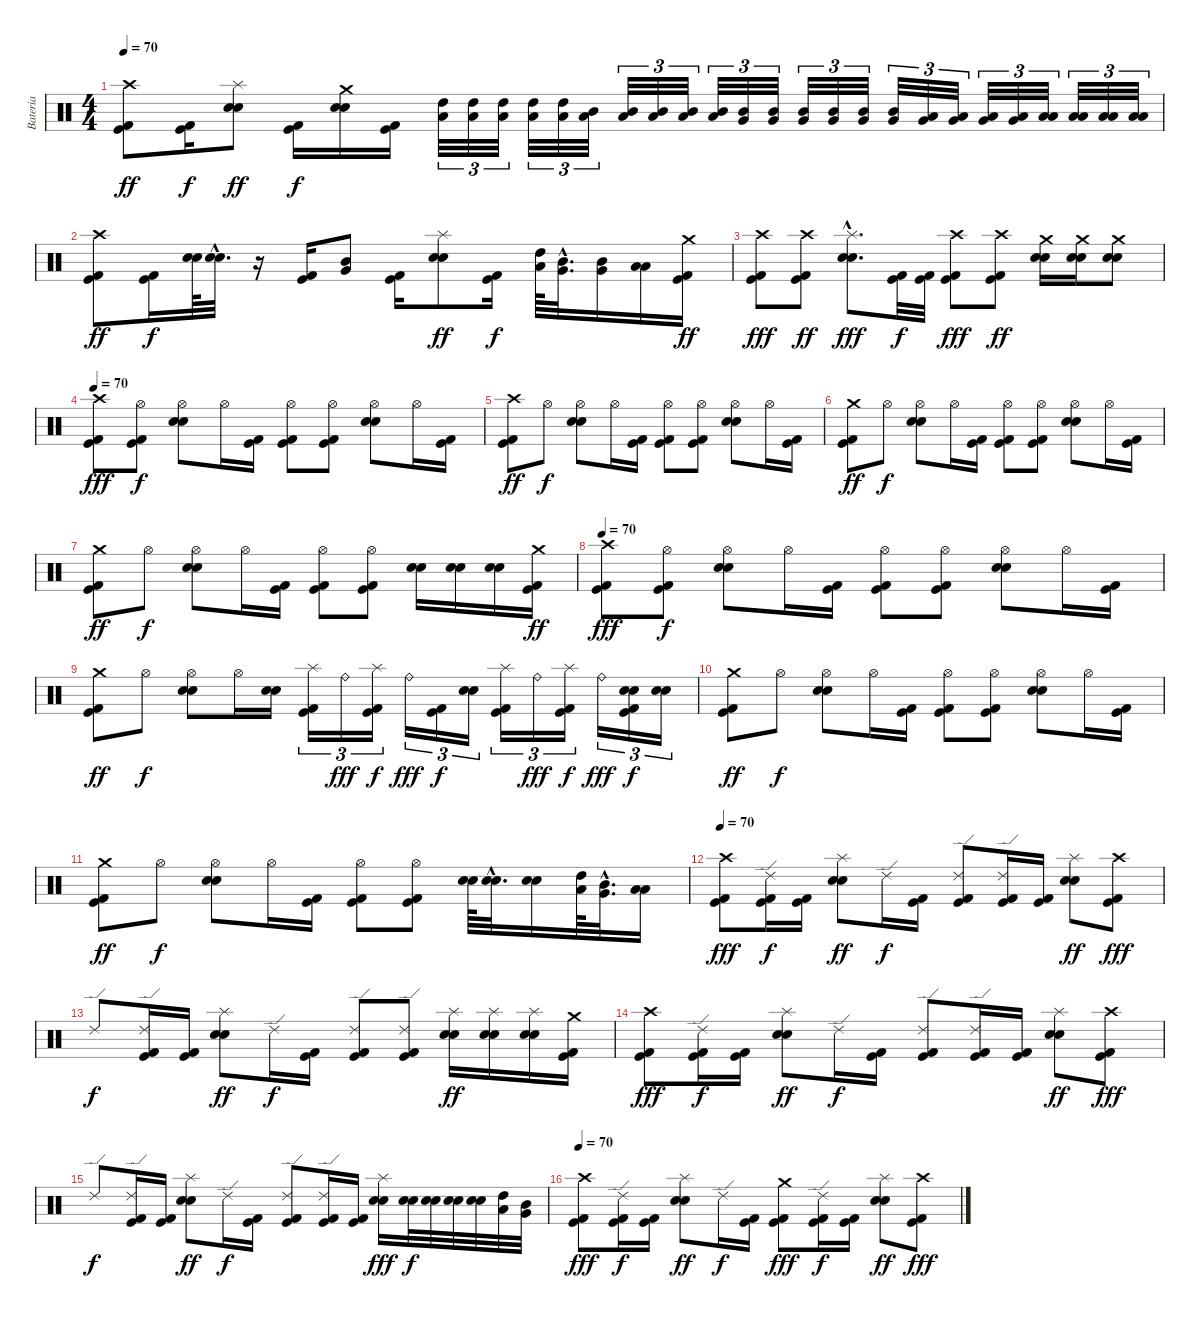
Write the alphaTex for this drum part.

\track ("Bateria" "Bateria") {instrument percussion}
\staff {score}
\articulation defaults
\ts (4 4)
\tempo 70
\clef neutral
\ks c
("Crash high (hit)" "Kick (hit) 2" "Kick (hit)").8{dy ff} ("Kick (hit) 2" "Kick (hit)").16{dy f} ("Splash (hit)" "Electric Snare (hit)" "Snare (hit) 2").8{dy ff} ("Kick (hit) 2" "Kick (hit)").16{dy f} ("Crash medium (hit)" "Electric Snare (hit)" "Snare (hit) 2").16 ("Kick (hit) 2" "Kick (hit)").16 ("High Tom (hit)" "Low Tom (hit)").32{tu (3 2)} ("High Tom (hit)" "Low Tom (hit)").32{tu (3 2)} ("High Tom (hit)" "Low Tom (hit)").32{tu (3 2)} ("High Tom (hit)" "Low Tom (hit)").32{tu (3 2)} ("High Tom (hit)" "Low Tom (hit)").32{tu (3 2)} ("Mid Tom (hit)" "Low Tom (hit)").32{tu (3 2)} ("Mid Tom (hit)" "Low Tom (hit)").32{tu (3 2)} ("Mid Tom (hit)" "Low Tom (hit)").32{tu (3 2)} ("Mid Tom (hit)" "Low Tom (hit)").32{tu (3 2)} ("Mid Tom (hit)" "Low Tom (hit)").32{tu (3 2)} ("Mid Tom (hit)" "Very Low Tom (hit)").32{tu (3 2)} ("Mid Tom (hit)" "Very Low Tom (hit)").32{tu (3 2)} ("Mid Tom (hit)" "Very Low Tom (hit)").32{tu (3 2)} ("Mid Tom (hit)" "Very Low Tom (hit)").32{tu (3 2)} ("Mid Tom (hit)" "Very Low Tom (hit)").32{tu (3 2)} ("Mid Tom (hit)" "Very Low Tom (hit)").32{tu (3 2)} ("Low Tom (hit)" "Very Low Tom (hit)").32{tu (3 2)} ("Low Tom (hit)" "Very Low Tom (hit)").32{tu (3 2)} ("Low Tom (hit)" "Very Low Tom (hit)").32{tu (3 2)} ("Low Tom (hit)" "Very Low Tom (hit)").32{tu (3 2)} ("Low Tom (hit)" "Low Floor Tom (hit)").32{tu (3 2)} ("Low Tom (hit)" "Low Floor Tom (hit)").32{tu (3 2)} ("Low Tom (hit)" "Low Floor Tom (hit)").32{tu (3 2)} ("Low Tom (hit)" "Low Floor Tom (hit)").32{tu (3 2)} |
("Crash high (hit)" "Kick (hit) 2" "Kick (hit)").8{dy ff} ("Kick (hit) 2" "Kick (hit)").16{dy f} ("Electric Snare (hit)" "Snare (hit) 2").64 ("Electric Snare (hit)"{hac} "Snare (hit) 2"{hac}).32{d} r.16 ("Kick (hit) 2" "Kick (hit)").16 ("Mid Tom (hit)" "Very Low Tom (hit)").8 ("Kick (hit) 2" "Kick (hit)").16 ("Splash (hit)" "Electric Snare (hit)" "Snare (hit) 2").8{dy ff} ("Kick (hit) 2" "Kick (hit)").16{dy f} ("High Tom (hit)" "Low Tom (hit)").64 ("Mid Tom (hit)"{hac} "Very Low Tom (hit)"{hac}).32{d} ("Mid Tom (hit)" "Very Low Tom (hit)").16 ("Low Tom (hit)" "Low Floor Tom (hit)").16 ("Crash medium (hit)" "Kick (hit) 2" "Kick (hit)").16{dy ff} |
("Crash high (hit)" "Kick (hit) 2" "Kick (hit)").8{dy fff} ("Crash high (hit)" "Kick (hit) 2" "Kick (hit)").8{dy ff} ("Splash (hit)"{hac} "Electric Snare (hit)"{hac} "Snare (hit) 2"{hac}).8{d dy fff} ("Kick (hit) 2" "Kick (hit)").32{dy f} ("Kick (hit) 2" "Kick (hit)").32 ("Crash high (hit)" "Kick (hit) 2" "Kick (hit)").8{dy fff} ("Crash high (hit)" "Kick (hit) 2" "Kick (hit)").8{dy ff} ("Crash medium (hit)" "Electric Snare (hit)" "Snare (hit) 2").16 ("Crash medium (hit)" "Electric Snare (hit)" "Snare (hit) 2").16 ("Crash medium (hit)" "Electric Snare (hit)" "Snare (hit) 2").8 |
\tempo 70
("Crash high (hit)" "Kick (hit) 2" "Kick (hit)").8{dy fff} ("Hi-Hat (open)" "Kick (hit) 2" "Kick (hit)").8{dy f} ("Hi-Hat (open)" "Electric Snare (hit)" "Snare (hit) 2").8 "Hi-Hat (open)".16 ("Kick (hit) 2" "Kick (hit)").16 ("Hi-Hat (open)" "Kick (hit) 2" "Kick (hit)").8 ("Hi-Hat (open)" "Kick (hit) 2" "Kick (hit)").8 ("Hi-Hat (open)" "Electric Snare (hit)" "Snare (hit) 2").8 "Hi-Hat (open)".16 ("Kick (hit) 2" "Kick (hit)").16 |
("Crash high (hit)" "Kick (hit) 2" "Kick (hit)").8{dy ff} "Hi-Hat (open)".8{dy f} ("Hi-Hat (open)" "Electric Snare (hit)" "Snare (hit) 2").8 "Hi-Hat (open)".16 ("Kick (hit) 2" "Kick (hit)").16 ("Hi-Hat (open)" "Kick (hit) 2" "Kick (hit)").8 ("Hi-Hat (open)" "Kick (hit) 2" "Kick (hit)").8 ("Hi-Hat (open)" "Electric Snare (hit)" "Snare (hit) 2").8 "Hi-Hat (open)".16 ("Kick (hit) 2" "Kick (hit)").16 |
("Crash medium (hit)" "Kick (hit) 2" "Kick (hit)").8{dy ff} "Hi-Hat (open)".8{dy f} ("Hi-Hat (open)" "Electric Snare (hit)" "Snare (hit) 2").8 "Hi-Hat (open)".16 ("Kick (hit) 2" "Kick (hit)").16 ("Hi-Hat (open)" "Kick (hit) 2" "Kick (hit)").8 ("Hi-Hat (open)" "Kick (hit) 2" "Kick (hit)").8 ("Hi-Hat (open)" "Electric Snare (hit)" "Snare (hit) 2").8 "Hi-Hat (open)".16 ("Kick (hit) 2" "Kick (hit)").16 |
("Crash medium (hit)" "Kick (hit) 2" "Kick (hit)").8{dy ff} "Hi-Hat (open)".8{dy f} ("Hi-Hat (open)" "Electric Snare (hit)" "Snare (hit) 2").8 "Hi-Hat (open)".16 ("Kick (hit) 2" "Kick (hit)").16 ("Hi-Hat (open)" "Kick (hit) 2" "Kick (hit)").8 ("Hi-Hat (open)" "Kick (hit) 2" "Kick (hit)").8 ("Electric Snare (hit)" "Snare (hit) 2").16 ("Electric Snare (hit)" "Snare (hit) 2").16 ("Electric Snare (hit)" "Snare (hit) 2").16 ("Crash medium (hit)" "Kick (hit) 2" "Kick (hit)").16{dy ff} |
\tempo 70
("Crash high (hit)" "Kick (hit) 2" "Kick (hit)").8{dy fff} ("Hi-Hat (open)" "Kick (hit) 2" "Kick (hit)").8{dy f} ("Hi-Hat (open)" "Electric Snare (hit)" "Snare (hit) 2").8 "Hi-Hat (open)".16 ("Kick (hit) 2" "Kick (hit)").16 ("Hi-Hat (open)" "Kick (hit) 2" "Kick (hit)").8 ("Hi-Hat (open)" "Kick (hit) 2" "Kick (hit)").8 ("Hi-Hat (open)" "Electric Snare (hit)" "Snare (hit) 2").8 "Hi-Hat (open)".16 ("Kick (hit) 2" "Kick (hit)").16 |
("Crash medium (hit)" "Kick (hit) 2" "Kick (hit)").8{dy ff} "Hi-Hat (open)".8{dy f} ("Hi-Hat (open)" "Electric Snare (hit)" "Snare (hit) 2").8 "Hi-Hat (open)".16 ("Electric Snare (hit)" "Snare (hit) 2").16 ("Splash (hit)" "Kick (hit) 2" "Kick (hit)").16{tu (3 2)} "Ride (bell)".16{tu (3 2) dy fff} ("Splash (hit)" "Kick (hit) 2" "Kick (hit)").16{tu (3 2) dy f} "Ride (bell)".16{tu (3 2) dy fff} ("Kick (hit) 2" "Kick (hit)").16{tu (3 2) dy f} ("Electric Snare (hit)" "Snare (hit) 2").16{tu (3 2)} ("Splash (hit)" "Kick (hit) 2" "Kick (hit)").16{tu (3 2)} "Ride (bell)".16{tu (3 2) dy fff} ("Splash (hit)" "Kick (hit) 2" "Kick (hit)").16{tu (3 2) dy f} "Ride (bell)".16{tu (3 2) dy fff} ("Electric Snare (hit)" "Snare (hit) 2" "Kick (hit) 2" "Kick (hit)").16{tu (3 2) dy f} ("Electric Snare (hit)" "Snare (hit) 2").16{tu (3 2)} |
("Crash medium (hit)" "Kick (hit) 2" "Kick (hit)").8{dy ff} "Hi-Hat (open)".8{dy f} ("Hi-Hat (open)" "Electric Snare (hit)" "Snare (hit) 2").8 "Hi-Hat (open)".16 ("Kick (hit) 2" "Kick (hit)").16 ("Hi-Hat (open)" "Kick (hit) 2" "Kick (hit)").8 ("Hi-Hat (open)" "Kick (hit) 2" "Kick (hit)").8 ("Hi-Hat (open)" "Electric Snare (hit)" "Snare (hit) 2").8 "Hi-Hat (open)".16 ("Kick (hit) 2" "Kick (hit)").16 |
("Crash medium (hit)" "Kick (hit) 2" "Kick (hit)").8{dy ff} "Hi-Hat (open)".8{dy f} ("Hi-Hat (open)" "Electric Snare (hit)" "Snare (hit) 2").8 "Hi-Hat (open)".16 ("Kick (hit) 2" "Kick (hit)").16 ("Hi-Hat (open)" "Kick (hit) 2" "Kick (hit)").8 ("Hi-Hat (open)" "Kick (hit) 2" "Kick (hit)").8 ("Electric Snare (hit)" "Snare (hit) 2").64 ("Electric Snare (hit)"{hac} "Snare (hit) 2"{hac}).32{d} ("Electric Snare (hit)" "Snare (hit) 2").16 ("High Tom (hit)" "Low Tom (hit)").64 ("Mid Tom (hit)"{hac} "Very Low Tom (hit)"{hac}).32{d} ("Low Tom (hit)" "Low Floor Tom (hit)").16 |
\tempo 70
("Crash high (hit)" "Kick (hit) 2" "Kick (hit)").8{dy fff} ("Ride (edge) 2" "Kick (hit) 2" "Kick (hit)").16{dy f} ("Kick (hit) 2" "Kick (hit)").16 ("Splash (hit)" "Electric Snare (hit)" "Snare (hit) 2").8{dy ff} "Ride (edge) 2".16{dy f} ("Kick (hit) 2" "Kick (hit)").16 ("Ride (edge) 2" "Kick (hit) 2" "Kick (hit)").8 ("Ride (edge) 2" "Kick (hit) 2" "Kick (hit)").16 ("Kick (hit) 2" "Kick (hit)").16 ("Splash (hit)" "Electric Snare (hit)" "Snare (hit) 2").8{dy ff} ("Crash high (hit)" "Kick (hit) 2" "Kick (hit)").8{dy fff} |
"Ride (edge) 2".8{dy f} ("Ride (edge) 2" "Kick (hit) 2" "Kick (hit)").16 ("Kick (hit) 2" "Kick (hit)").16 ("Splash (hit)" "Electric Snare (hit)" "Snare (hit) 2").8{dy ff} "Ride (edge) 2".16{dy f} ("Kick (hit) 2" "Kick (hit)").16 ("Ride (edge) 2" "Kick (hit) 2" "Kick (hit)").8 ("Ride (edge) 2" "Kick (hit) 2" "Kick (hit)").8 ("Splash (hit)" "Electric Snare (hit)" "Snare (hit) 2").16{dy ff} ("Splash (hit)" "Electric Snare (hit)" "Snare (hit) 2").16 ("Splash (hit)" "Electric Snare (hit)" "Snare (hit) 2").16 ("Crash medium (hit)" "Kick (hit) 2" "Kick (hit)").16 |
("Crash high (hit)" "Kick (hit) 2" "Kick (hit)").8{dy fff} ("Ride (edge) 2" "Kick (hit) 2" "Kick (hit)").16{dy f} ("Kick (hit) 2" "Kick (hit)").16 ("Splash (hit)" "Electric Snare (hit)" "Snare (hit) 2").8{dy ff} "Ride (edge) 2".16{dy f} ("Kick (hit) 2" "Kick (hit)").16 ("Ride (edge) 2" "Kick (hit) 2" "Kick (hit)").8 ("Ride (edge) 2" "Kick (hit) 2" "Kick (hit)").16 ("Kick (hit) 2" "Kick (hit)").16 ("Splash (hit)" "Electric Snare (hit)" "Snare (hit) 2").8{dy ff} ("Crash high (hit)" "Kick (hit) 2" "Kick (hit)").8{dy fff} |
"Ride (edge) 2".8{dy f} ("Ride (edge) 2" "Kick (hit) 2" "Kick (hit)").16 ("Kick (hit) 2" "Kick (hit)").16 ("Splash (hit)" "Electric Snare (hit)" "Snare (hit) 2").8{dy ff} "Ride (edge) 2".16{dy f} ("Kick (hit) 2" "Kick (hit)").16 ("Ride (edge) 2" "Kick (hit) 2" "Kick (hit)").8 ("Ride (edge) 2" "Kick (hit) 2" "Kick (hit)").16 ("Kick (hit) 2" "Kick (hit)").16 ("Splash (hit)" "Electric Snare (hit)" "Snare (hit) 2").16{dy fff} ("Electric Snare (hit)" "Snare (hit) 2").32{dy f} ("Electric Snare (hit)" "Snare (hit) 2").32 ("Electric Snare (hit)" "Snare (hit) 2").32 ("Electric Snare (hit)" "Snare (hit) 2").32 ("High Tom (hit)" "Low Tom (hit)").32 ("Mid Tom (hit)" "Very Low Tom (hit)").32 |
\tempo 70
("Crash high (hit)" "Kick (hit) 2" "Kick (hit)").8{dy fff} ("Ride (edge) 2" "Kick (hit) 2" "Kick (hit)").16{dy f} ("Kick (hit) 2" "Kick (hit)").16 ("Splash (hit)" "Electric Snare (hit)" "Snare (hit) 2").8{dy ff} "Ride (edge) 2".16{dy f} ("Kick (hit) 2" "Kick (hit)").16 ("Crash medium (hit)" "Kick (hit) 2" "Kick (hit)").8{dy fff} ("Ride (edge) 2" "Kick (hit) 2" "Kick (hit)").16{dy f} ("Kick (hit) 2" "Kick (hit)").16 ("Splash (hit)" "Electric Snare (hit)" "Snare (hit) 2").8{dy ff} ("Crash high (hit)" "Kick (hit) 2" "Kick (hit)").8{dy fff}
